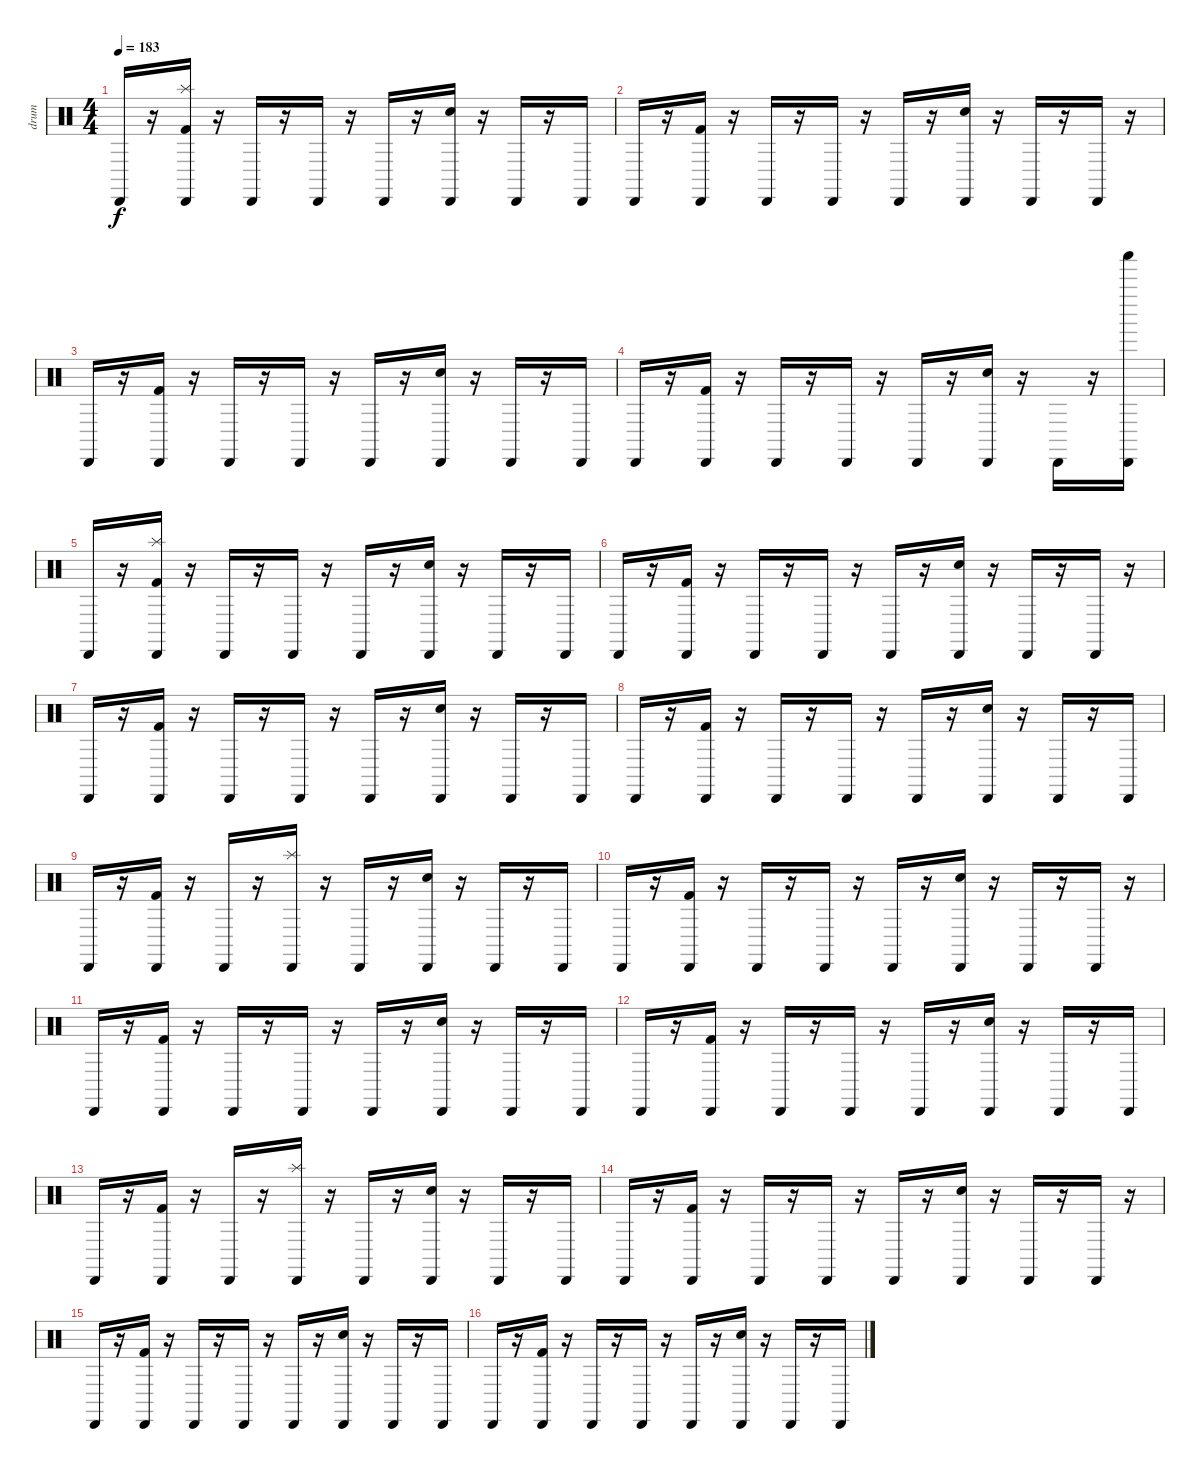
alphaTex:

\track ("drum" "drum") {instrument percussion}
\staff {score}
\articulation defaults
\ts (4 4)
\tempo 183
\clef neutral
\ks c "Cabasa (hit)".16{dy f}
r.16 ("Cabasa (hit)" "Kick (hit) 2" "Splash (hit)").16 r.16 "Cabasa (hit)".16 r.16 "Cabasa (hit)".16 r.16 "Cabasa (hit)".16 r.16 ("Cabasa (hit)" "Snare (hit) 2").16 r.16 "Cabasa (hit)".16 r.16 "Cabasa (hit)".16 |
"Cabasa (hit)".16 r.16 ("Cabasa (hit)" "Kick (hit) 2").16 r.16 "Cabasa (hit)".16 r.16 "Cabasa (hit)".16 r.16 "Cabasa (hit)".16 r.16 ("Cabasa (hit)" "Snare (hit) 2").16 r.16 "Cabasa (hit)".16 r.16 "Cabasa (hit)".16 r.16 |
"Cabasa (hit)".16 r.16 ("Cabasa (hit)" "Kick (hit) 2").16 r.16 "Cabasa (hit)".16 r.16 "Cabasa (hit)".16 r.16 "Cabasa (hit)".16 r.16 ("Cabasa (hit)" "Snare (hit) 2").16 r.16 "Cabasa (hit)".16 r.16 "Cabasa (hit)".16 |
"Cabasa (hit)".16 r.16 ("Cabasa (hit)" "Kick (hit) 2").16 r.16 "Cabasa (hit)".16 r.16 "Cabasa (hit)".16 r.16 "Cabasa (hit)".16 r.16 ("Cabasa (hit)" "Snare (hit) 2").16 r.16 "Cabasa (hit)".16 r.16 ("Cabasa (hit)" "Shaker (hit)").16 |
"Cabasa (hit)".16 r.16 ("Cabasa (hit)" "Kick (hit) 2" "Splash (hit)").16 r.16 "Cabasa (hit)".16 r.16 "Cabasa (hit)".16 r.16 "Cabasa (hit)".16 r.16 ("Cabasa (hit)" "Snare (hit) 2").16 r.16 "Cabasa (hit)".16 r.16 "Cabasa (hit)".16 |
"Cabasa (hit)".16 r.16 ("Cabasa (hit)" "Kick (hit) 2").16 r.16 "Cabasa (hit)".16 r.16 "Cabasa (hit)".16 r.16 "Cabasa (hit)".16 r.16 ("Cabasa (hit)" "Snare (hit) 2").16 r.16 "Cabasa (hit)".16 r.16 "Cabasa (hit)".16 r.16 |
"Cabasa (hit)".16 r.16 ("Cabasa (hit)" "Kick (hit) 2").16 r.16 "Cabasa (hit)".16 r.16 "Cabasa (hit)".16 r.16 "Cabasa (hit)".16 r.16 ("Cabasa (hit)" "Snare (hit) 2").16 r.16 "Cabasa (hit)".16 r.16 "Cabasa (hit)".16 |
"Cabasa (hit)".16 r.16 ("Cabasa (hit)" "Kick (hit) 2").16 r.16 "Cabasa (hit)".16 r.16 "Cabasa (hit)".16 r.16 "Cabasa (hit)".16 r.16 ("Cabasa (hit)" "Snare (hit) 2").16 r.16 "Cabasa (hit)".16 r.16 "Cabasa (hit)".16 |
"Cabasa (hit)".16 r.16 ("Cabasa (hit)" "Kick (hit) 2").16 r.16 "Cabasa (hit)".16 r.16 ("Cabasa (hit)" "Splash (hit)").16 r.16 "Cabasa (hit)".16 r.16 ("Cabasa (hit)" "Snare (hit) 2").16 r.16 "Cabasa (hit)".16 r.16 "Cabasa (hit)".16 |
"Cabasa (hit)".16 r.16 ("Cabasa (hit)" "Kick (hit) 2").16 r.16 "Cabasa (hit)".16 r.16 "Cabasa (hit)".16 r.16 "Cabasa (hit)".16 r.16 ("Cabasa (hit)" "Snare (hit) 2").16 r.16 "Cabasa (hit)".16 r.16 "Cabasa (hit)".16 r.16 |
"Cabasa (hit)".16 r.16 ("Cabasa (hit)" "Kick (hit) 2").16 r.16 "Cabasa (hit)".16 r.16 "Cabasa (hit)".16 r.16 "Cabasa (hit)".16 r.16 ("Cabasa (hit)" "Snare (hit) 2").16 r.16 "Cabasa (hit)".16 r.16 "Cabasa (hit)".16 |
"Cabasa (hit)".16 r.16 ("Cabasa (hit)" "Kick (hit) 2").16 r.16 "Cabasa (hit)".16 r.16 "Cabasa (hit)".16 r.16 "Cabasa (hit)".16 r.16 ("Cabasa (hit)" "Snare (hit) 2").16 r.16 "Cabasa (hit)".16 r.16 "Cabasa (hit)".16 |
"Cabasa (hit)".16 r.16 ("Cabasa (hit)" "Kick (hit) 2").16 r.16 "Cabasa (hit)".16 r.16 ("Cabasa (hit)" "Splash (hit)").16 r.16 "Cabasa (hit)".16 r.16 ("Cabasa (hit)" "Snare (hit) 2").16 r.16 "Cabasa (hit)".16 r.16 "Cabasa (hit)".16 |
"Cabasa (hit)".16 r.16 ("Cabasa (hit)" "Kick (hit) 2").16 r.16 "Cabasa (hit)".16 r.16 "Cabasa (hit)".16 r.16 "Cabasa (hit)".16 r.16 ("Cabasa (hit)" "Snare (hit) 2").16 r.16 "Cabasa (hit)".16 r.16 "Cabasa (hit)".16 r.16 |
"Cabasa (hit)".16 r.16 ("Cabasa (hit)" "Kick (hit) 2").16 r.16 "Cabasa (hit)".16 r.16 "Cabasa (hit)".16 r.16 "Cabasa (hit)".16 r.16 ("Cabasa (hit)" "Snare (hit) 2").16 r.16 "Cabasa (hit)".16 r.16 "Cabasa (hit)".16 |
"Cabasa (hit)".16 r.16 ("Cabasa (hit)" "Kick (hit) 2").16 r.16 "Cabasa (hit)".16 r.16 "Cabasa (hit)".16 r.16 "Cabasa (hit)".16 r.16 ("Cabasa (hit)" "Snare (hit) 2").16 r.16 "Cabasa (hit)".16 r.16 "Cabasa (hit)".16
